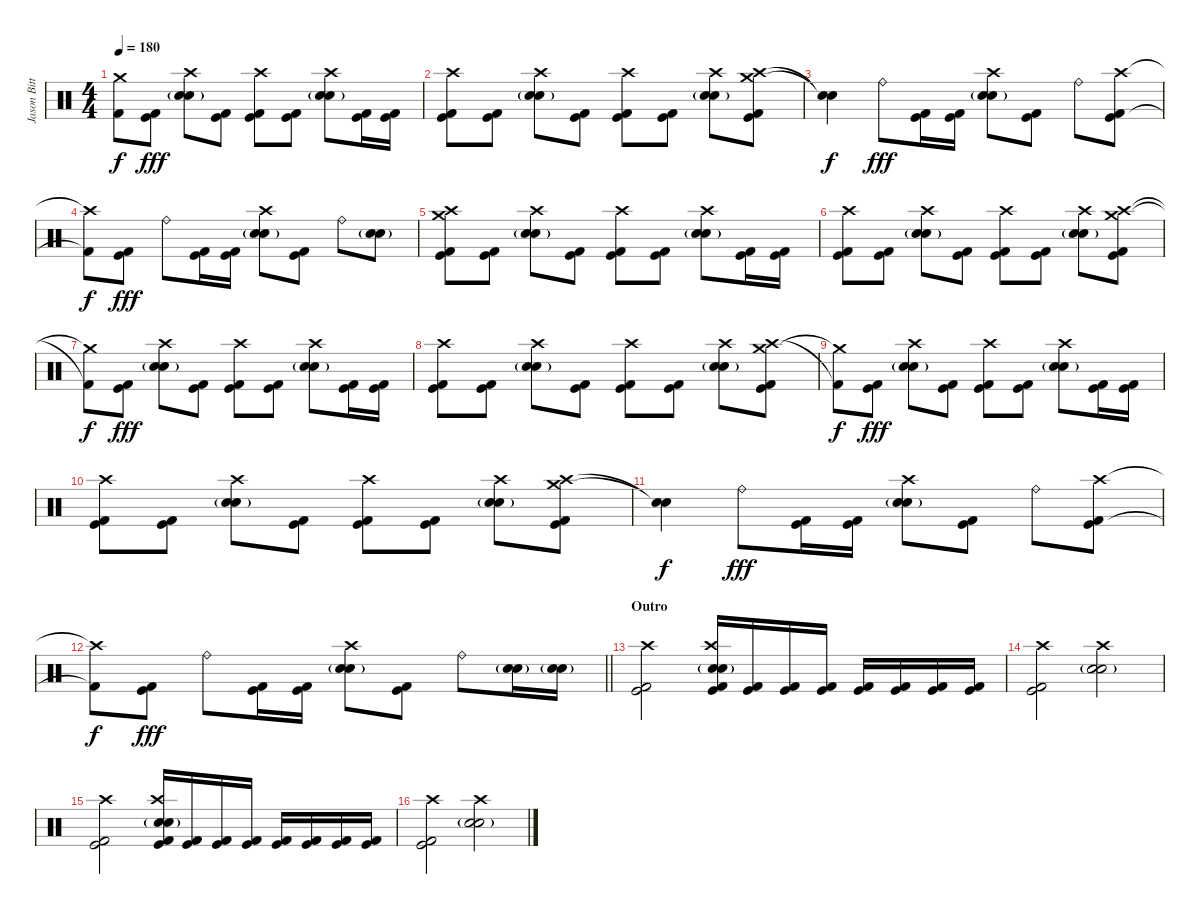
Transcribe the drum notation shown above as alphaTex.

\track ("Jason Bittner" "Jason Bitt") {instrument percussion}
\staff {score}
\articulation defaults
\ts (4 4)
\tempo 180
\clef neutral
\ks c
("Crash medium (hit)"{t} "Kick (hit) 2"{t}).8{dy f} ("Kick (hit)" "Kick (hit) 2").8{dy fff} ("Crash high (hit)" "Snare (hit) 2"{g} "Electric Snare (hit)").8 ("Kick (hit)" "Kick (hit) 2").8 ("Crash high (hit)" "Kick (hit)" "Kick (hit) 2").8 ("Kick (hit)" "Kick (hit) 2").8 ("Crash high (hit)" "Snare (hit) 2"{g} "Electric Snare (hit)").8 ("Kick (hit)" "Kick (hit) 2").16 ("Kick (hit)" "Kick (hit) 2").16 |
("Crash high (hit)" "Kick (hit)" "Kick (hit) 2").8 ("Kick (hit)" "Kick (hit) 2").8 ("Crash high (hit)" "Snare (hit) 2"{g} "Electric Snare (hit)").8 ("Kick (hit)" "Kick (hit) 2").8 ("Crash high (hit)" "Kick (hit)" "Kick (hit) 2").8 ("Kick (hit)" "Kick (hit) 2").8 ("Crash high (hit)" "Snare (hit) 2"{g} "Electric Snare (hit)").8 ("Crash medium (hit)" "Crash high (hit)" "Kick (hit)" "Kick (hit) 2").8 |
("Snare (hit)"{t} "Snare (hit)"{t}).4{dy f} "Ride (bell)".8{dy fff} ("Kick (hit)" "Kick (hit) 2").16 ("Kick (hit)" "Kick (hit) 2").16 ("Crash high (hit)" "Snare (hit) 2"{g} "Electric Snare (hit)").8 ("Kick (hit)" "Kick (hit) 2").8 "Ride (bell)".8 ("Crash high (hit)" "Kick (hit)" "Kick (hit) 2").8 |
("Crash high (hit)"{t} "Kick (hit) 2"{t}).8{dy f} ("Kick (hit)" "Kick (hit) 2").8{dy fff} "Ride (bell)".8 ("Kick (hit)" "Kick (hit) 2").16 ("Kick (hit)" "Kick (hit) 2").16 ("Crash high (hit)" "Snare (hit) 2"{g} "Electric Snare (hit)").8 ("Kick (hit)" "Kick (hit) 2").8 "Ride (bell)".8 ("Snare (hit) 2"{g} "Electric Snare (hit)").8 |
("Crash medium (hit)" "Crash high (hit)" "Kick (hit)" "Kick (hit) 2").8 ("Kick (hit)" "Kick (hit) 2").8 ("Crash high (hit)" "Snare (hit) 2"{g} "Electric Snare (hit)").8 ("Kick (hit)" "Kick (hit) 2").8 ("Crash high (hit)" "Kick (hit)" "Kick (hit) 2").8 ("Kick (hit)" "Kick (hit) 2").8 ("Crash high (hit)" "Snare (hit) 2"{g} "Electric Snare (hit)").8 ("Kick (hit)" "Kick (hit) 2").16 ("Kick (hit)" "Kick (hit) 2").16 |
("Crash high (hit)" "Kick (hit)" "Kick (hit) 2").8 ("Kick (hit)" "Kick (hit) 2").8 ("Crash high (hit)" "Snare (hit) 2"{g} "Electric Snare (hit)").8 ("Kick (hit)" "Kick (hit) 2").8 ("Crash high (hit)" "Kick (hit)" "Kick (hit) 2").8 ("Kick (hit)" "Kick (hit) 2").8 ("Crash high (hit)" "Snare (hit) 2"{g} "Electric Snare (hit)").8 ("Crash medium (hit)" "Crash high (hit)" "Kick (hit)" "Kick (hit) 2").8 |
("Crash medium (hit)"{t} "Kick (hit) 2"{t}).8{dy f} ("Kick (hit)" "Kick (hit) 2").8{dy fff} ("Crash high (hit)" "Snare (hit) 2"{g} "Electric Snare (hit)").8 ("Kick (hit)" "Kick (hit) 2").8 ("Crash high (hit)" "Kick (hit)" "Kick (hit) 2").8 ("Kick (hit)" "Kick (hit) 2").8 ("Crash high (hit)" "Snare (hit) 2"{g} "Electric Snare (hit)").8 ("Kick (hit)" "Kick (hit) 2").16 ("Kick (hit)" "Kick (hit) 2").16 |
("Crash high (hit)" "Kick (hit)" "Kick (hit) 2").8 ("Kick (hit)" "Kick (hit) 2").8 ("Crash high (hit)" "Snare (hit) 2"{g} "Electric Snare (hit)").8 ("Kick (hit)" "Kick (hit) 2").8 ("Crash high (hit)" "Kick (hit)" "Kick (hit) 2").8 ("Kick (hit)" "Kick (hit) 2").8 ("Crash high (hit)" "Snare (hit) 2"{g} "Electric Snare (hit)").8 ("Crash medium (hit)" "Crash high (hit)" "Kick (hit)" "Kick (hit) 2").8 |
("Crash medium (hit)"{t} "Kick (hit) 2"{t}).8{dy f} ("Kick (hit)" "Kick (hit) 2").8{dy fff} ("Crash high (hit)" "Snare (hit) 2"{g} "Electric Snare (hit)").8 ("Kick (hit)" "Kick (hit) 2").8 ("Crash high (hit)" "Kick (hit)" "Kick (hit) 2").8 ("Kick (hit)" "Kick (hit) 2").8 ("Crash high (hit)" "Snare (hit) 2"{g} "Electric Snare (hit)").8 ("Kick (hit)" "Kick (hit) 2").16 ("Kick (hit)" "Kick (hit) 2").16 |
("Crash high (hit)" "Kick (hit)" "Kick (hit) 2").8 ("Kick (hit)" "Kick (hit) 2").8 ("Crash high (hit)" "Snare (hit) 2"{g} "Electric Snare (hit)").8 ("Kick (hit)" "Kick (hit) 2").8 ("Crash high (hit)" "Kick (hit)" "Kick (hit) 2").8 ("Kick (hit)" "Kick (hit) 2").8 ("Crash high (hit)" "Snare (hit) 2"{g} "Electric Snare (hit)").8 ("Crash medium (hit)" "Crash high (hit)" "Kick (hit)" "Kick (hit) 2").8 |
("Snare (hit)"{t} "Snare (hit)"{t}).4{dy f} "Ride (bell)".8{dy fff} ("Kick (hit)" "Kick (hit) 2").16 ("Kick (hit)" "Kick (hit) 2").16 ("Crash high (hit)" "Snare (hit) 2"{g} "Electric Snare (hit)").8 ("Kick (hit)" "Kick (hit) 2").8 "Ride (bell)".8 ("Crash high (hit)" "Kick (hit)" "Kick (hit) 2").8 |
\barLineRight lightlight
("Crash high (hit)"{t} "Kick (hit) 2"{t}).8{dy f} ("Kick (hit)" "Kick (hit) 2").8{dy fff} "Ride (bell)".8 ("Kick (hit)" "Kick (hit) 2").16 ("Kick (hit)" "Kick (hit) 2").16 ("Crash high (hit)" "Snare (hit) 2"{g} "Electric Snare (hit)").8 ("Kick (hit)" "Kick (hit) 2").8 "Ride (bell)".8 ("Snare (hit) 2"{g} "Electric Snare (hit)").16 ("Snare (hit) 2"{g} "Electric Snare (hit)").16 |
\section ("" "Outro")
("Crash high (hit)" "Kick (hit)" "Kick (hit) 2").2 ("Crash high (hit)" "Snare (hit) 2"{g} "Electric Snare (hit)" "Kick (hit)" "Kick (hit) 2").16 ("Kick (hit)" "Kick (hit) 2").16 ("Kick (hit)" "Kick (hit) 2").16 ("Kick (hit)" "Kick (hit) 2").16 ("Kick (hit)" "Kick (hit) 2").16 ("Kick (hit)" "Kick (hit) 2").16 ("Kick (hit)" "Kick (hit) 2").16 ("Kick (hit)" "Kick (hit) 2").16 |
("Crash high (hit)" "Kick (hit)" "Kick (hit) 2").2 ("Crash high (hit)" "Snare (hit) 2"{g} "Electric Snare (hit)").2 |
("Crash high (hit)" "Kick (hit)" "Kick (hit) 2").2 ("Crash high (hit)" "Snare (hit) 2"{g} "Electric Snare (hit)" "Kick (hit)" "Kick (hit) 2").16 ("Kick (hit)" "Kick (hit) 2").16 ("Kick (hit)" "Kick (hit) 2").16 ("Kick (hit)" "Kick (hit) 2").16 ("Kick (hit)" "Kick (hit) 2").16 ("Kick (hit)" "Kick (hit) 2").16 ("Kick (hit)" "Kick (hit) 2").16 ("Kick (hit)" "Kick (hit) 2").16 |
("Crash high (hit)" "Kick (hit)" "Kick (hit) 2").2 ("Crash high (hit)" "Snare (hit) 2"{g} "Electric Snare (hit)").2
